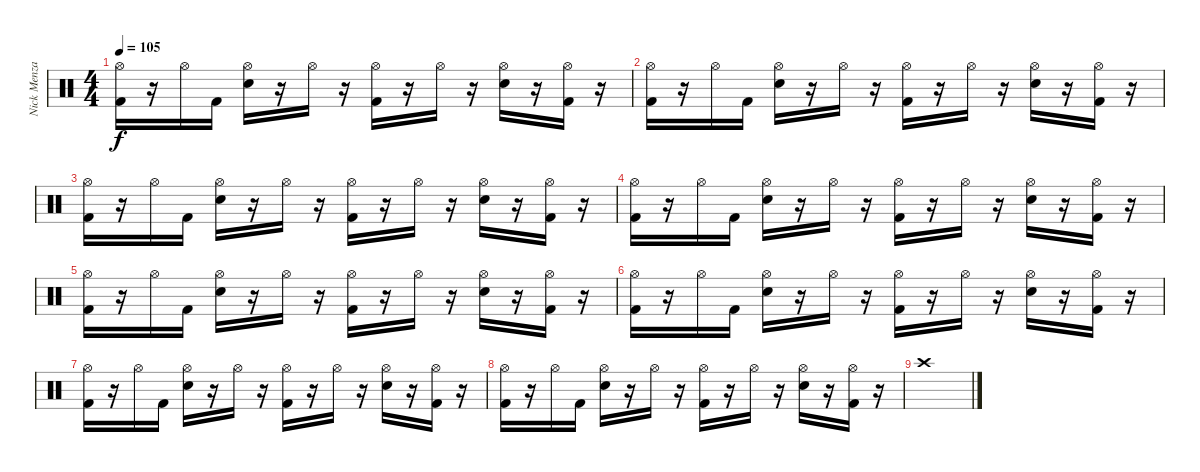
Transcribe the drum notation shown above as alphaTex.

\track ("Nick Menza" "Nick Menza") {instrument percussion}
\staff {score}
\articulation defaults
\ts (4 4)
\tempo 105
\clef neutral
\ks c
("Hi-Hat (open)" "Kick (hit) 2").16{dy f} r.16 "Hi-Hat (open)".16 "Kick (hit) 2".16 ("Hi-Hat (open)" "Electric Snare (hit)").16 r.16 "Hi-Hat (open)".16 r.16 ("Hi-Hat (open)" "Kick (hit) 2").16 r.16 "Hi-Hat (open)".16 r.16 ("Hi-Hat (open)" "Electric Snare (hit)").16 r.16 ("Hi-Hat (open)" "Kick (hit) 2").16 r.16 |
("Hi-Hat (open)" "Kick (hit) 2").16 r.16 "Hi-Hat (open)".16 "Kick (hit) 2".16 ("Hi-Hat (open)" "Electric Snare (hit)").16 r.16 "Hi-Hat (open)".16 r.16 ("Hi-Hat (open)" "Kick (hit) 2").16 r.16 "Hi-Hat (open)".16 r.16 ("Hi-Hat (open)" "Electric Snare (hit)").16 r.16 ("Hi-Hat (open)" "Kick (hit) 2").16 r.16 |
("Hi-Hat (open)" "Kick (hit) 2").16 r.16 "Hi-Hat (open)".16 "Kick (hit) 2".16 ("Hi-Hat (open)" "Electric Snare (hit)").16 r.16 "Hi-Hat (open)".16 r.16 ("Hi-Hat (open)" "Kick (hit) 2").16 r.16 "Hi-Hat (open)".16 r.16 ("Hi-Hat (open)" "Electric Snare (hit)").16 r.16 ("Hi-Hat (open)" "Kick (hit) 2").16 r.16 |
("Hi-Hat (open)" "Kick (hit) 2").16 r.16 "Hi-Hat (open)".16 "Kick (hit) 2".16 ("Hi-Hat (open)" "Electric Snare (hit)").16 r.16 "Hi-Hat (open)".16 r.16 ("Hi-Hat (open)" "Kick (hit) 2").16 r.16 "Hi-Hat (open)".16 r.16 ("Hi-Hat (open)" "Electric Snare (hit)").16 r.16 ("Hi-Hat (open)" "Kick (hit) 2").16 r.16 |
("Hi-Hat (open)" "Kick (hit) 2").16 r.16 "Hi-Hat (open)".16 "Kick (hit) 2".16 ("Hi-Hat (open)" "Electric Snare (hit)").16 r.16 "Hi-Hat (open)".16 r.16 ("Hi-Hat (open)" "Kick (hit) 2").16 r.16 "Hi-Hat (open)".16 r.16 ("Hi-Hat (open)" "Electric Snare (hit)").16 r.16 ("Hi-Hat (open)" "Kick (hit) 2").16 r.16 |
("Hi-Hat (open)" "Kick (hit) 2").16 r.16 "Hi-Hat (open)".16 "Kick (hit) 2".16 ("Hi-Hat (open)" "Electric Snare (hit)").16 r.16 "Hi-Hat (open)".16 r.16 ("Hi-Hat (open)" "Kick (hit) 2").16 r.16 "Hi-Hat (open)".16 r.16 ("Hi-Hat (open)" "Electric Snare (hit)").16 r.16 ("Hi-Hat (open)" "Kick (hit) 2").16 r.16 |
("Hi-Hat (open)" "Kick (hit) 2").16 r.16 "Hi-Hat (open)".16 "Kick (hit) 2".16 ("Hi-Hat (open)" "Electric Snare (hit)").16 r.16 "Hi-Hat (open)".16 r.16 ("Hi-Hat (open)" "Kick (hit) 2").16 r.16 "Hi-Hat (open)".16 r.16 ("Hi-Hat (open)" "Electric Snare (hit)").16 r.16 ("Hi-Hat (open)" "Kick (hit) 2").16 r.16 |
("Hi-Hat (open)" "Kick (hit) 2").16 r.16 "Hi-Hat (open)".16 "Kick (hit) 2".16 ("Hi-Hat (open)" "Electric Snare (hit)").16 r.16 "Hi-Hat (open)".16 r.16 ("Hi-Hat (open)" "Kick (hit) 2").16 r.16 "Hi-Hat (open)".16 r.16 ("Hi-Hat (open)" "Electric Snare (hit)").16 r.16 ("Hi-Hat (open)" "Kick (hit) 2").16 r.16 |
"Crash high (hit)".1
